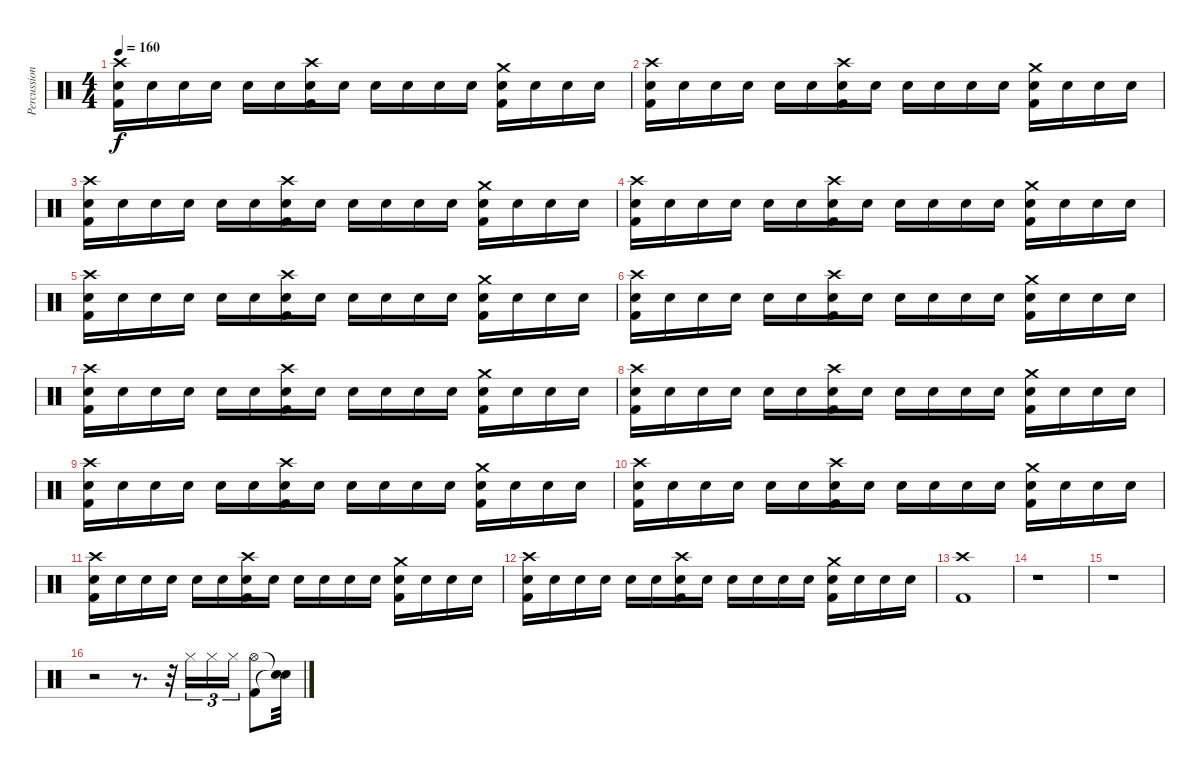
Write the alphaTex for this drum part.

\track ("Percussion" "Percussion") {instrument percussion}
\staff {score}
\articulation defaults
\ts (4 4)
\tempo 160
\clef neutral
\ks c
("Snare (hit) 2" "Kick (hit) 2" "Crash high (hit)").16{dy f} "Snare (hit) 2".16 "Snare (hit) 2".16 "Snare (hit) 2".16 "Snare (hit) 2".16 "Snare (hit) 2".16 ("Snare (hit) 2" "Kick (hit) 2" "Crash high (hit)").16 "Snare (hit) 2".16 "Snare (hit) 2".16 "Snare (hit) 2".16 "Snare (hit) 2".16 "Snare (hit) 2".16 ("Snare (hit) 2" "Kick (hit) 2" "Crash medium (hit)").16 "Snare (hit) 2".16 "Snare (hit) 2".16 "Snare (hit) 2".16 |
("Snare (hit) 2" "Kick (hit) 2" "Crash high (hit)").16 "Snare (hit) 2".16 "Snare (hit) 2".16 "Snare (hit) 2".16 "Snare (hit) 2".16 "Snare (hit) 2".16 ("Snare (hit) 2" "Kick (hit) 2" "Crash high (hit)").16 "Snare (hit) 2".16 "Snare (hit) 2".16 "Snare (hit) 2".16 "Snare (hit) 2".16 "Snare (hit) 2".16 ("Snare (hit) 2" "Kick (hit) 2" "Crash medium (hit)").16 "Snare (hit) 2".16 "Snare (hit) 2".16 "Snare (hit) 2".16 |
("Snare (hit) 2" "Kick (hit) 2" "Crash high (hit)").16 "Snare (hit) 2".16 "Snare (hit) 2".16 "Snare (hit) 2".16 "Snare (hit) 2".16 "Snare (hit) 2".16 ("Snare (hit) 2" "Kick (hit) 2" "Crash high (hit)").16 "Snare (hit) 2".16 "Snare (hit) 2".16 "Snare (hit) 2".16 "Snare (hit) 2".16 "Snare (hit) 2".16 ("Snare (hit) 2" "Kick (hit) 2" "Crash medium (hit)").16 "Snare (hit) 2".16 "Snare (hit) 2".16 "Snare (hit) 2".16 |
("Snare (hit) 2" "Kick (hit) 2" "Crash high (hit)").16 "Snare (hit) 2".16 "Snare (hit) 2".16 "Snare (hit) 2".16 "Snare (hit) 2".16 "Snare (hit) 2".16 ("Snare (hit) 2" "Kick (hit) 2" "Crash high (hit)").16 "Snare (hit) 2".16 "Snare (hit) 2".16 "Snare (hit) 2".16 "Snare (hit) 2".16 "Snare (hit) 2".16 ("Snare (hit) 2" "Kick (hit) 2" "Crash medium (hit)").16 "Snare (hit) 2".16 "Snare (hit) 2".16 "Snare (hit) 2".16 |
("Snare (hit) 2" "Kick (hit) 2" "Crash high (hit)").16 "Snare (hit) 2".16 "Snare (hit) 2".16 "Snare (hit) 2".16 "Snare (hit) 2".16 "Snare (hit) 2".16 ("Snare (hit) 2" "Kick (hit) 2" "Crash high (hit)").16 "Snare (hit) 2".16 "Snare (hit) 2".16 "Snare (hit) 2".16 "Snare (hit) 2".16 "Snare (hit) 2".16 ("Snare (hit) 2" "Kick (hit) 2" "Crash medium (hit)").16 "Snare (hit) 2".16 "Snare (hit) 2".16 "Snare (hit) 2".16 |
("Snare (hit) 2" "Kick (hit) 2" "Crash high (hit)").16 "Snare (hit) 2".16 "Snare (hit) 2".16 "Snare (hit) 2".16 "Snare (hit) 2".16 "Snare (hit) 2".16 ("Snare (hit) 2" "Kick (hit) 2" "Crash high (hit)").16 "Snare (hit) 2".16 "Snare (hit) 2".16 "Snare (hit) 2".16 "Snare (hit) 2".16 "Snare (hit) 2".16 ("Snare (hit) 2" "Kick (hit) 2" "Crash medium (hit)").16 "Snare (hit) 2".16 "Snare (hit) 2".16 "Snare (hit) 2".16 |
("Snare (hit) 2" "Kick (hit) 2" "Crash high (hit)").16 "Snare (hit) 2".16 "Snare (hit) 2".16 "Snare (hit) 2".16 "Snare (hit) 2".16 "Snare (hit) 2".16 ("Snare (hit) 2" "Kick (hit) 2" "Crash high (hit)").16 "Snare (hit) 2".16 "Snare (hit) 2".16 "Snare (hit) 2".16 "Snare (hit) 2".16 "Snare (hit) 2".16 ("Snare (hit) 2" "Kick (hit) 2" "Crash medium (hit)").16 "Snare (hit) 2".16 "Snare (hit) 2".16 "Snare (hit) 2".16 |
("Snare (hit) 2" "Kick (hit) 2" "Crash high (hit)").16 "Snare (hit) 2".16 "Snare (hit) 2".16 "Snare (hit) 2".16 "Snare (hit) 2".16 "Snare (hit) 2".16 ("Snare (hit) 2" "Kick (hit) 2" "Crash high (hit)").16 "Snare (hit) 2".16 "Snare (hit) 2".16 "Snare (hit) 2".16 "Snare (hit) 2".16 "Snare (hit) 2".16 ("Snare (hit) 2" "Kick (hit) 2" "Crash medium (hit)").16 "Snare (hit) 2".16 "Snare (hit) 2".16 "Snare (hit) 2".16 |
("Snare (hit) 2" "Kick (hit) 2" "Crash high (hit)").16 "Snare (hit) 2".16 "Snare (hit) 2".16 "Snare (hit) 2".16 "Snare (hit) 2".16 "Snare (hit) 2".16 ("Snare (hit) 2" "Kick (hit) 2" "Crash high (hit)").16 "Snare (hit) 2".16 "Snare (hit) 2".16 "Snare (hit) 2".16 "Snare (hit) 2".16 "Snare (hit) 2".16 ("Snare (hit) 2" "Kick (hit) 2" "Crash medium (hit)").16 "Snare (hit) 2".16 "Snare (hit) 2".16 "Snare (hit) 2".16 |
("Snare (hit) 2" "Kick (hit) 2" "Crash high (hit)").16 "Snare (hit) 2".16 "Snare (hit) 2".16 "Snare (hit) 2".16 "Snare (hit) 2".16 "Snare (hit) 2".16 ("Snare (hit) 2" "Kick (hit) 2" "Crash high (hit)").16 "Snare (hit) 2".16 "Snare (hit) 2".16 "Snare (hit) 2".16 "Snare (hit) 2".16 "Snare (hit) 2".16 ("Snare (hit) 2" "Kick (hit) 2" "Crash medium (hit)").16 "Snare (hit) 2".16 "Snare (hit) 2".16 "Snare (hit) 2".16 |
("Snare (hit) 2" "Kick (hit) 2" "Crash high (hit)").16 "Snare (hit) 2".16 "Snare (hit) 2".16 "Snare (hit) 2".16 "Snare (hit) 2".16 "Snare (hit) 2".16 ("Snare (hit) 2" "Kick (hit) 2" "Crash high (hit)").16 "Snare (hit) 2".16 "Snare (hit) 2".16 "Snare (hit) 2".16 "Snare (hit) 2".16 "Snare (hit) 2".16 ("Snare (hit) 2" "Kick (hit) 2" "Crash medium (hit)").16 "Snare (hit) 2".16 "Snare (hit) 2".16 "Snare (hit) 2".16 |
("Snare (hit) 2" "Kick (hit) 2" "Crash high (hit)").16 "Snare (hit) 2".16 "Snare (hit) 2".16 "Snare (hit) 2".16 "Snare (hit) 2".16 "Snare (hit) 2".16 ("Snare (hit) 2" "Kick (hit) 2" "Crash high (hit)").16 "Snare (hit) 2".16 "Snare (hit) 2".16 "Snare (hit) 2".16 "Snare (hit) 2".16 "Snare (hit) 2".16 ("Snare (hit) 2" "Kick (hit) 2" "Crash medium (hit)").16 "Snare (hit) 2".16 "Snare (hit) 2".16 "Snare (hit) 2".16 |
("Crash high (hit)" "Kick (hit) 2").1 |
r.1 |
r.1 |
r.2 r.8{d} r.32 "Hi-Hat (closed)".16{tu (3 2)} "Hi-Hat (closed)".16{tu (3 2)} "Hi-Hat (closed)".16{tu (3 2)} ("Hi-Hat (open)" "Kick (hit) 2").8 ("Snare (hit)"{t} "Snare (hit)"{t}).32
